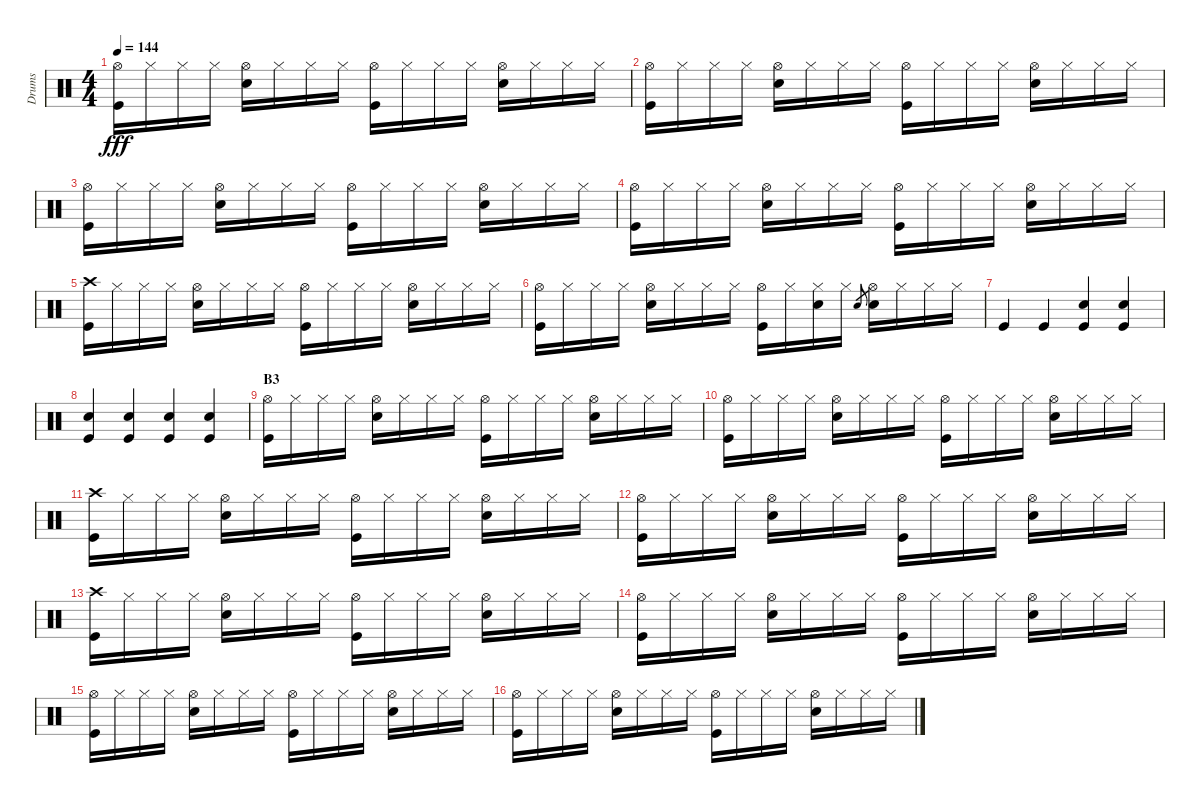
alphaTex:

\track ("Drums" "Drums") {instrument percussion}
\staff {score}
\articulation defaults
\ts (4 4)
\tempo 144
\clef neutral
\ks c
("Hi-Hat (open)" "Kick (hit)").16{dy fff} "Hi-Hat (closed)".16 "Hi-Hat (closed)".16 "Hi-Hat (closed)".16 ("Hi-Hat (open)" "Snare (hit) 2").16 "Hi-Hat (closed)".16 "Hi-Hat (closed)".16 "Hi-Hat (closed)".16 ("Hi-Hat (open)" "Kick (hit)").16 "Hi-Hat (closed)".16 "Hi-Hat (closed)".16 "Hi-Hat (closed)".16 ("Hi-Hat (open)" "Snare (hit) 2").16 "Hi-Hat (closed)".16 "Hi-Hat (closed)".16 "Hi-Hat (closed)".16 |
("Hi-Hat (open)" "Kick (hit)").16 "Hi-Hat (closed)".16 "Hi-Hat (closed)".16 "Hi-Hat (closed)".16 ("Hi-Hat (open)" "Snare (hit) 2").16 "Hi-Hat (closed)".16 "Hi-Hat (closed)".16 "Hi-Hat (closed)".16 ("Hi-Hat (open)" "Kick (hit)").16 "Hi-Hat (closed)".16 "Hi-Hat (closed)".16 "Hi-Hat (closed)".16 ("Hi-Hat (open)" "Snare (hit) 2").16 "Hi-Hat (closed)".16 "Hi-Hat (closed)".16 "Hi-Hat (closed)".16 |
("Hi-Hat (open)" "Kick (hit)").16 "Hi-Hat (closed)".16 "Hi-Hat (closed)".16 "Hi-Hat (closed)".16 ("Hi-Hat (open)" "Snare (hit) 2").16 "Hi-Hat (closed)".16 "Hi-Hat (closed)".16 "Hi-Hat (closed)".16 ("Hi-Hat (open)" "Kick (hit)").16 "Hi-Hat (closed)".16 "Hi-Hat (closed)".16 "Hi-Hat (closed)".16 ("Hi-Hat (open)" "Snare (hit) 2").16 "Hi-Hat (closed)".16 "Hi-Hat (closed)".16 "Hi-Hat (closed)".16 |
("Hi-Hat (open)" "Kick (hit)").16 "Hi-Hat (closed)".16 "Hi-Hat (closed)".16 "Hi-Hat (closed)".16 ("Hi-Hat (open)" "Snare (hit) 2").16 "Hi-Hat (closed)".16 "Hi-Hat (closed)".16 "Hi-Hat (closed)".16 ("Hi-Hat (open)" "Kick (hit)").16 "Hi-Hat (closed)".16 "Hi-Hat (closed)".16 "Hi-Hat (closed)".16 ("Hi-Hat (open)" "Snare (hit) 2").16 "Hi-Hat (closed)".16 "Hi-Hat (closed)".16 "Hi-Hat (closed)".16 |
("Crash high (hit)" "Kick (hit)").16 "Hi-Hat (closed)".16 "Hi-Hat (closed)".16 "Hi-Hat (closed)".16 ("Hi-Hat (open)" "Snare (hit) 2").16 "Hi-Hat (closed)".16 "Hi-Hat (closed)".16 "Hi-Hat (closed)".16 ("Hi-Hat (open)" "Kick (hit)").16 "Hi-Hat (closed)".16 "Hi-Hat (closed)".16 "Hi-Hat (closed)".16 ("Hi-Hat (open)" "Snare (hit) 2").16 "Hi-Hat (closed)".16 "Hi-Hat (closed)".16 "Hi-Hat (closed)".16 |
("Hi-Hat (open)" "Kick (hit)").16 "Hi-Hat (closed)".16 "Hi-Hat (closed)".16 "Hi-Hat (closed)".16 ("Hi-Hat (open)" "Snare (hit) 2").16 "Hi-Hat (closed)".16 "Hi-Hat (closed)".16 "Hi-Hat (closed)".16 ("Hi-Hat (open)" "Kick (hit)").16 "Hi-Hat (closed)".16 ("Hi-Hat (closed)" "Snare (hit) 2").16 "Hi-Hat (closed)".16 "Snare (hit) 2".8{gr} ("Hi-Hat (open)" "Snare (hit) 2").16 "Hi-Hat (closed)".16 "Hi-Hat (closed)".16 "Hi-Hat (closed)".16 |
"Kick (hit)".4 "Kick (hit)".4 ("Electric Snare (hit)" "Kick (hit)").4 ("Electric Snare (hit)" "Kick (hit)").4 |
("Electric Snare (hit)" "Kick (hit)").4 ("Electric Snare (hit)" "Kick (hit)").4 ("Electric Snare (hit)" "Kick (hit)").4 ("Electric Snare (hit)" "Kick (hit)").4 |
\section ("" "B3")
("Hi-Hat (open)" "Kick (hit)").16 "Hi-Hat (closed)".16 "Hi-Hat (closed)".16 "Hi-Hat (closed)".16 ("Hi-Hat (open)" "Snare (hit) 2").16 "Hi-Hat (closed)".16 "Hi-Hat (closed)".16 "Hi-Hat (closed)".16 ("Hi-Hat (open)" "Kick (hit)").16 "Hi-Hat (closed)".16 "Hi-Hat (closed)".16 "Hi-Hat (closed)".16 ("Hi-Hat (open)" "Snare (hit) 2").16 "Hi-Hat (closed)".16 "Hi-Hat (closed)".16 "Hi-Hat (closed)".16 |
("Hi-Hat (open)" "Kick (hit)").16 "Hi-Hat (closed)".16 "Hi-Hat (closed)".16 "Hi-Hat (closed)".16 ("Hi-Hat (open)" "Snare (hit) 2").16 "Hi-Hat (closed)".16 "Hi-Hat (closed)".16 "Hi-Hat (closed)".16 ("Hi-Hat (open)" "Kick (hit)").16 "Hi-Hat (closed)".16 "Hi-Hat (closed)".16 "Hi-Hat (closed)".16 ("Hi-Hat (open)" "Snare (hit) 2").16 "Hi-Hat (closed)".16 "Hi-Hat (closed)".16 "Hi-Hat (closed)".16 |
("Crash high (hit)" "Kick (hit)").16 "Hi-Hat (closed)".16 "Hi-Hat (closed)".16 "Hi-Hat (closed)".16 ("Hi-Hat (open)" "Snare (hit) 2").16 "Hi-Hat (closed)".16 "Hi-Hat (closed)".16 "Hi-Hat (closed)".16 ("Hi-Hat (open)" "Kick (hit)").16 "Hi-Hat (closed)".16 "Hi-Hat (closed)".16 "Hi-Hat (closed)".16 ("Hi-Hat (open)" "Snare (hit) 2").16 "Hi-Hat (closed)".16 "Hi-Hat (closed)".16 "Hi-Hat (closed)".16 |
("Hi-Hat (open)" "Kick (hit)").16 "Hi-Hat (closed)".16 "Hi-Hat (closed)".16 "Hi-Hat (closed)".16 ("Hi-Hat (open)" "Snare (hit) 2").16 "Hi-Hat (closed)".16 "Hi-Hat (closed)".16 "Hi-Hat (closed)".16 ("Hi-Hat (open)" "Kick (hit)").16 "Hi-Hat (closed)".16 "Hi-Hat (closed)".16 "Hi-Hat (closed)".16 ("Hi-Hat (open)" "Snare (hit) 2").16 "Hi-Hat (closed)".16 "Hi-Hat (closed)".16 "Hi-Hat (closed)".16 |
("Crash high (hit)" "Kick (hit)").16 "Hi-Hat (closed)".16 "Hi-Hat (closed)".16 "Hi-Hat (closed)".16 ("Hi-Hat (open)" "Snare (hit) 2").16 "Hi-Hat (closed)".16 "Hi-Hat (closed)".16 "Hi-Hat (closed)".16 ("Hi-Hat (open)" "Kick (hit)").16 "Hi-Hat (closed)".16 "Hi-Hat (closed)".16 "Hi-Hat (closed)".16 ("Hi-Hat (open)" "Snare (hit) 2").16 "Hi-Hat (closed)".16 "Hi-Hat (closed)".16 "Hi-Hat (closed)".16 |
("Hi-Hat (open)" "Kick (hit)").16 "Hi-Hat (closed)".16 "Hi-Hat (closed)".16 "Hi-Hat (closed)".16 ("Hi-Hat (open)" "Snare (hit) 2").16 "Hi-Hat (closed)".16 "Hi-Hat (closed)".16 "Hi-Hat (closed)".16 ("Hi-Hat (open)" "Kick (hit)").16 "Hi-Hat (closed)".16 "Hi-Hat (closed)".16 "Hi-Hat (closed)".16 ("Hi-Hat (open)" "Snare (hit) 2").16 "Hi-Hat (closed)".16 "Hi-Hat (closed)".16 "Hi-Hat (closed)".16 |
("Hi-Hat (open)" "Kick (hit)").16 "Hi-Hat (closed)".16 "Hi-Hat (closed)".16 "Hi-Hat (closed)".16 ("Hi-Hat (open)" "Snare (hit) 2").16 "Hi-Hat (closed)".16 "Hi-Hat (closed)".16 "Hi-Hat (closed)".16 ("Hi-Hat (open)" "Kick (hit)").16 "Hi-Hat (closed)".16 "Hi-Hat (closed)".16 "Hi-Hat (closed)".16 ("Hi-Hat (open)" "Snare (hit) 2").16 "Hi-Hat (closed)".16 "Hi-Hat (closed)".16 "Hi-Hat (closed)".16 |
("Hi-Hat (open)" "Kick (hit)").16 "Hi-Hat (closed)".16 "Hi-Hat (closed)".16 "Hi-Hat (closed)".16 ("Hi-Hat (open)" "Snare (hit) 2").16 "Hi-Hat (closed)".16 "Hi-Hat (closed)".16 "Hi-Hat (closed)".16 ("Hi-Hat (open)" "Kick (hit)").16 "Hi-Hat (closed)".16 "Hi-Hat (closed)".16 "Hi-Hat (closed)".16 ("Hi-Hat (open)" "Snare (hit) 2").16 "Hi-Hat (closed)".16 "Hi-Hat (closed)".16 "Hi-Hat (closed)".16
